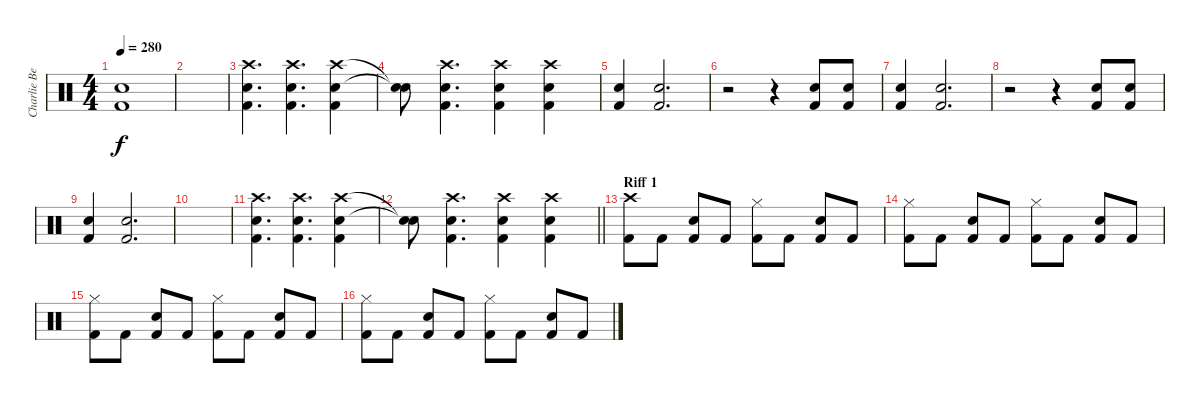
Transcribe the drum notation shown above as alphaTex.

\track ("Charlie Benante" "Charlie Be") {instrument percussion}
\staff {score}
\articulation defaults
\ts (4 4)
\tempo 280
\clef neutral
\ks c
("Snare (hit) 2" "Kick (hit) 2").1{dy f} |
|
("Crash high (hit)" "Snare (hit) 2" "Kick (hit) 2").4{d} ("Crash high (hit)" "Snare (hit) 2" "Kick (hit) 2").4{d} ("Crash high (hit)" "Snare (hit) 2" "Kick (hit) 2").4 |
("Snare (hit)"{t} "Snare (hit)"{t}).8 ("Crash high (hit)" "Snare (hit) 2" "Kick (hit) 2").4{d} ("Crash high (hit)" "Snare (hit) 2" "Kick (hit) 2").4 ("Crash high (hit)" "Snare (hit) 2" "Kick (hit) 2").4 |
("Snare (hit) 2" "Kick (hit) 2").4 ("Snare (hit) 2" "Kick (hit) 2").2{d} |
r.2 r.4 ("Snare (hit) 2" "Kick (hit) 2").8 ("Snare (hit) 2" "Kick (hit) 2").8 |
("Snare (hit) 2" "Kick (hit) 2").4 ("Snare (hit) 2" "Kick (hit) 2").2{d} |
r.2 r.4 ("Snare (hit) 2" "Kick (hit) 2").8 ("Snare (hit) 2" "Kick (hit) 2").8 |
("Snare (hit) 2" "Kick (hit) 2").4 ("Snare (hit) 2" "Kick (hit) 2").2{d} |
|
("Crash high (hit)" "Snare (hit) 2" "Kick (hit) 2").4{d} ("Crash high (hit)" "Snare (hit) 2" "Kick (hit) 2").4{d} ("Crash high (hit)" "Snare (hit) 2" "Kick (hit) 2").4 |
\barLineRight lightlight
("Snare (hit)"{t} "Snare (hit)"{t}).8 ("Crash high (hit)" "Snare (hit) 2" "Kick (hit) 2").4{d} ("Crash high (hit)" "Snare (hit) 2" "Kick (hit) 2").4 ("Crash high (hit)" "Snare (hit) 2" "Kick (hit) 2").4 |
\section ("" "Riff 1")
("Crash high (hit)" "Kick (hit) 2").8 "Kick (hit) 2".8 ("Snare (hit) 2" "Kick (hit) 2").8 "Kick (hit) 2".8 ("Hi-Hat (closed)" "Kick (hit) 2").8 "Kick (hit) 2".8 ("Snare (hit) 2" "Kick (hit) 2").8 "Kick (hit) 2".8 |
("Hi-Hat (closed)" "Kick (hit) 2").8 "Kick (hit) 2".8 ("Snare (hit) 2" "Kick (hit) 2").8 "Kick (hit) 2".8 ("Hi-Hat (closed)" "Kick (hit) 2").8 "Kick (hit) 2".8 ("Snare (hit) 2" "Kick (hit) 2").8 "Kick (hit) 2".8 |
("Hi-Hat (closed)" "Kick (hit) 2").8 "Kick (hit) 2".8 ("Snare (hit) 2" "Kick (hit) 2").8 "Kick (hit) 2".8 ("Hi-Hat (closed)" "Kick (hit) 2").8 "Kick (hit) 2".8 ("Snare (hit) 2" "Kick (hit) 2").8 "Kick (hit) 2".8 |
("Hi-Hat (closed)" "Kick (hit) 2").8 "Kick (hit) 2".8 ("Snare (hit) 2" "Kick (hit) 2").8 "Kick (hit) 2".8 ("Hi-Hat (closed)" "Kick (hit) 2").8 "Kick (hit) 2".8 ("Snare (hit) 2" "Kick (hit) 2").8 "Kick (hit) 2".8
